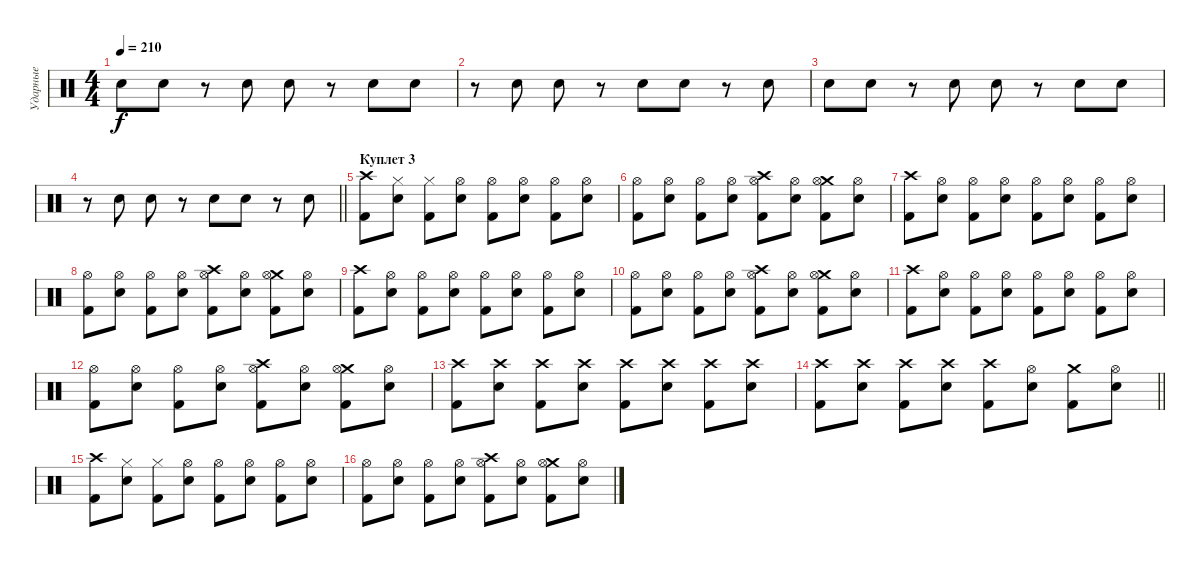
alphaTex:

\track ("Ударные" "Ударные") {instrument percussion}
\staff {score}
\articulation defaults
\ts (4 4)
\tempo 210
\clef neutral
\ks c "Electric Snare (hit)".8{dy f} "Electric Snare (hit)".8
r.8 "Electric Snare (hit)".8 "Electric Snare (hit)".8 r.8 "Electric Snare (hit)".8 "Electric Snare (hit)".8 |
r.8 "Electric Snare (hit)".8 "Electric Snare (hit)".8 r.8 "Electric Snare (hit)".8 "Electric Snare (hit)".8 r.8 "Electric Snare (hit)".8 |
"Electric Snare (hit)".8 "Electric Snare (hit)".8 r.8 "Electric Snare (hit)".8 "Electric Snare (hit)".8 r.8 "Electric Snare (hit)".8 "Electric Snare (hit)".8 |
\barLineRight lightlight
r.8 "Electric Snare (hit)".8 "Electric Snare (hit)".8 r.8 "Electric Snare (hit)".8 "Electric Snare (hit)".8 r.8 "Electric Snare (hit)".8 |
\section ("" "Куплет 3")
("Crash high (hit)" "Kick (hit) 2").8 ("Hi-Hat (closed)" "Snare (hit) 2").8 ("Hi-Hat (closed)" "Kick (hit) 2").8 ("Hi-Hat (open)" "Snare (hit) 2").8 ("Hi-Hat (open)" "Kick (hit) 2").8 ("Hi-Hat (open)" "Snare (hit) 2").8 ("Hi-Hat (open)" "Kick (hit) 2").8 ("Hi-Hat (open)" "Snare (hit) 2").8 |
("Hi-Hat (open)" "Kick (hit) 2").8 ("Hi-Hat (open)" "Snare (hit) 2").8 ("Hi-Hat (open)" "Kick (hit) 2").8 ("Hi-Hat (open)" "Snare (hit) 2").8 ("Crash high (hit)" "Hi-Hat (open)" "Kick (hit) 2").8 ("Hi-Hat (open)" "Snare (hit) 2").8 ("Crash medium (hit)" "Hi-Hat (open)" "Kick (hit) 2").8 ("Hi-Hat (open)" "Snare (hit) 2").8 |
("Crash high (hit)" "Kick (hit) 2").8 ("Hi-Hat (open)" "Snare (hit) 2").8 ("Hi-Hat (open)" "Kick (hit) 2").8 ("Hi-Hat (open)" "Snare (hit) 2").8 ("Hi-Hat (open)" "Kick (hit) 2").8 ("Hi-Hat (open)" "Snare (hit) 2").8 ("Hi-Hat (open)" "Kick (hit) 2").8 ("Hi-Hat (open)" "Snare (hit) 2").8 |
("Hi-Hat (open)" "Kick (hit) 2").8 ("Hi-Hat (open)" "Snare (hit) 2").8 ("Hi-Hat (open)" "Kick (hit) 2").8 ("Hi-Hat (open)" "Snare (hit) 2").8 ("Crash high (hit)" "Hi-Hat (open)" "Kick (hit) 2").8 ("Hi-Hat (open)" "Snare (hit) 2").8 ("Crash medium (hit)" "Hi-Hat (open)" "Kick (hit) 2").8 ("Hi-Hat (open)" "Snare (hit) 2").8 |
("Crash high (hit)" "Kick (hit) 2").8 ("Hi-Hat (open)" "Snare (hit) 2").8 ("Hi-Hat (open)" "Kick (hit) 2").8 ("Hi-Hat (open)" "Snare (hit) 2").8 ("Hi-Hat (open)" "Kick (hit) 2").8 ("Hi-Hat (open)" "Snare (hit) 2").8 ("Hi-Hat (open)" "Kick (hit) 2").8 ("Hi-Hat (open)" "Snare (hit) 2").8 |
("Hi-Hat (open)" "Kick (hit) 2").8 ("Hi-Hat (open)" "Snare (hit) 2").8 ("Hi-Hat (open)" "Kick (hit) 2").8 ("Hi-Hat (open)" "Snare (hit) 2").8 ("Crash high (hit)" "Hi-Hat (open)" "Kick (hit) 2").8 ("Hi-Hat (open)" "Snare (hit) 2").8 ("Crash medium (hit)" "Hi-Hat (open)" "Kick (hit) 2").8 ("Hi-Hat (open)" "Snare (hit) 2").8 |
("Crash high (hit)" "Kick (hit) 2").8 ("Hi-Hat (open)" "Snare (hit) 2").8 ("Hi-Hat (open)" "Kick (hit) 2").8 ("Hi-Hat (open)" "Snare (hit) 2").8 ("Hi-Hat (open)" "Kick (hit) 2").8 ("Hi-Hat (open)" "Snare (hit) 2").8 ("Hi-Hat (open)" "Kick (hit) 2").8 ("Hi-Hat (open)" "Snare (hit) 2").8 |
("Hi-Hat (open)" "Kick (hit) 2").8 ("Hi-Hat (open)" "Snare (hit) 2").8 ("Hi-Hat (open)" "Kick (hit) 2").8 ("Hi-Hat (open)" "Snare (hit) 2").8 ("Crash high (hit)" "Hi-Hat (open)" "Kick (hit) 2").8 ("Hi-Hat (open)" "Snare (hit) 2").8 ("Crash medium (hit)" "Hi-Hat (open)" "Kick (hit) 2").8 ("Hi-Hat (open)" "Snare (hit) 2").8 |
("Crash high (hit)" "Kick (hit) 2").8 ("Crash high (hit)" "Snare (hit) 2").8 ("Crash high (hit)" "Kick (hit) 2").8 ("Crash high (hit)" "Snare (hit) 2").8 ("Crash high (hit)" "Kick (hit) 2").8 ("Crash high (hit)" "Snare (hit) 2").8 ("Crash high (hit)" "Kick (hit) 2").8 ("Crash high (hit)" "Snare (hit) 2").8 |
\barLineRight lightlight
("Crash high (hit)" "Kick (hit) 2").8 ("Crash high (hit)" "Snare (hit) 2").8 ("Crash high (hit)" "Kick (hit) 2").8 ("Crash high (hit)" "Snare (hit) 2").8 ("Crash high (hit)" "Kick (hit) 2").8 ("Hi-Hat (open)" "Snare (hit) 2").8 ("Crash medium (hit)" "Kick (hit) 2").8 ("Hi-Hat (open)" "Snare (hit) 2").8 |
("Crash high (hit)" "Kick (hit) 2").8 ("Hi-Hat (closed)" "Snare (hit) 2").8 ("Hi-Hat (closed)" "Kick (hit) 2").8 ("Hi-Hat (open)" "Snare (hit) 2").8 ("Hi-Hat (open)" "Kick (hit) 2").8 ("Hi-Hat (open)" "Snare (hit) 2").8 ("Hi-Hat (open)" "Kick (hit) 2").8 ("Hi-Hat (open)" "Snare (hit) 2").8 |
("Hi-Hat (open)" "Kick (hit) 2").8 ("Hi-Hat (open)" "Snare (hit) 2").8 ("Hi-Hat (open)" "Kick (hit) 2").8 ("Hi-Hat (open)" "Snare (hit) 2").8 ("Crash high (hit)" "Hi-Hat (open)" "Kick (hit) 2").8 ("Hi-Hat (open)" "Snare (hit) 2").8 ("Crash medium (hit)" "Hi-Hat (open)" "Kick (hit) 2").8 ("Hi-Hat (open)" "Snare (hit) 2").8
